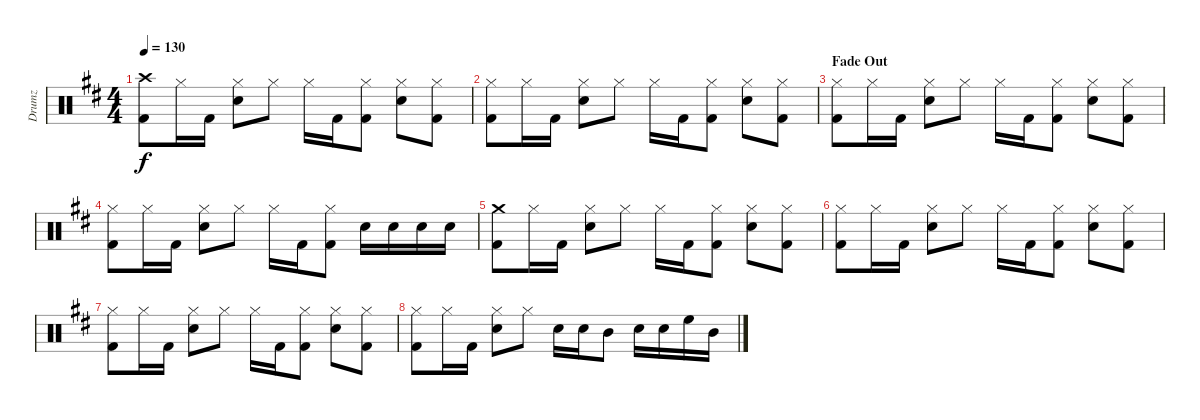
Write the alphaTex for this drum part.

\track ("Drumz" "Drumz") {instrument percussion}
\staff {score}
\articulation defaults
\ts (4 4)
\tempo 130
\clef neutral
\ks d
("Crash high (hit)" "Kick (hit) 2").8{dy f} "Hi-Hat (closed)".16 "Kick (hit) 2".16 ("Hi-Hat (closed)" "Snare (hit) 2").8 "Hi-Hat (closed)".8 "Hi-Hat (closed)".16 "Kick (hit) 2".16 ("Hi-Hat (closed)" "Kick (hit) 2").8 ("Hi-Hat (closed)" "Snare (hit) 2").8 ("Hi-Hat (closed)" "Kick (hit) 2").8 |
("Hi-Hat (closed)" "Kick (hit) 2").8 "Hi-Hat (closed)".16 "Kick (hit) 2".16 ("Hi-Hat (closed)" "Snare (hit) 2").8 "Hi-Hat (closed)".8 "Hi-Hat (closed)".16 "Kick (hit) 2".16 ("Hi-Hat (closed)" "Kick (hit) 2").8 ("Hi-Hat (closed)" "Snare (hit) 2").8 ("Hi-Hat (closed)" "Kick (hit) 2").8 |
\section ("" "Fade Out")
("Hi-Hat (closed)" "Kick (hit) 2").8 "Hi-Hat (closed)".16 "Kick (hit) 2".16 ("Hi-Hat (closed)" "Snare (hit) 2").8 "Hi-Hat (closed)".8 "Hi-Hat (closed)".16 "Kick (hit) 2".16 ("Hi-Hat (closed)" "Kick (hit) 2").8 ("Hi-Hat (closed)" "Snare (hit) 2").8 ("Hi-Hat (closed)" "Kick (hit) 2").8 |
("Hi-Hat (closed)" "Kick (hit) 2").8 "Hi-Hat (closed)".16 "Kick (hit) 2".16 ("Hi-Hat (closed)" "Snare (hit) 2").8 "Hi-Hat (closed)".8 "Hi-Hat (closed)".16 "Kick (hit) 2".16 ("Hi-Hat (closed)" "Kick (hit) 2").8 "Snare (hit) 2".16 "Snare (hit) 2".16 "Snare (hit) 2".16 "Snare (hit) 2".16 |
("Crash medium (hit)" "Kick (hit) 2").8 "Hi-Hat (closed)".16 "Kick (hit) 2".16 ("Hi-Hat (closed)" "Snare (hit) 2").8 "Hi-Hat (closed)".8 "Hi-Hat (closed)".16 "Kick (hit) 2".16 ("Hi-Hat (closed)" "Kick (hit) 2").8 ("Hi-Hat (closed)" "Snare (hit) 2").8 ("Hi-Hat (closed)" "Kick (hit) 2").8 |
("Hi-Hat (closed)" "Kick (hit) 2").8 "Hi-Hat (closed)".16 "Kick (hit) 2".16 ("Hi-Hat (closed)" "Snare (hit) 2").8 "Hi-Hat (closed)".8 "Hi-Hat (closed)".16 "Kick (hit) 2".16 ("Hi-Hat (closed)" "Kick (hit) 2").8 ("Hi-Hat (closed)" "Snare (hit) 2").8 ("Hi-Hat (closed)" "Kick (hit) 2").8 |
("Hi-Hat (closed)" "Kick (hit) 2").8 "Hi-Hat (closed)".16 "Kick (hit) 2".16 ("Hi-Hat (closed)" "Snare (hit) 2").8 "Hi-Hat (closed)".8 "Hi-Hat (closed)".16 "Kick (hit) 2".16 ("Hi-Hat (closed)" "Kick (hit) 2").8 ("Hi-Hat (closed)" "Snare (hit) 2").8 ("Hi-Hat (closed)" "Kick (hit) 2").8 |
("Hi-Hat (closed)" "Kick (hit) 2").8 "Hi-Hat (closed)".16 "Kick (hit) 2".16 ("Hi-Hat (closed)" "Snare (hit) 2").8 "Hi-Hat (closed)".8 "Snare (hit) 2".16 "Snare (hit) 2".16 "Mid Tom (hit)".8 "Snare (hit) 2".16 "Snare (hit) 2".16 "High Floor Tom (hit)".16 "Mid Tom (hit)".16
